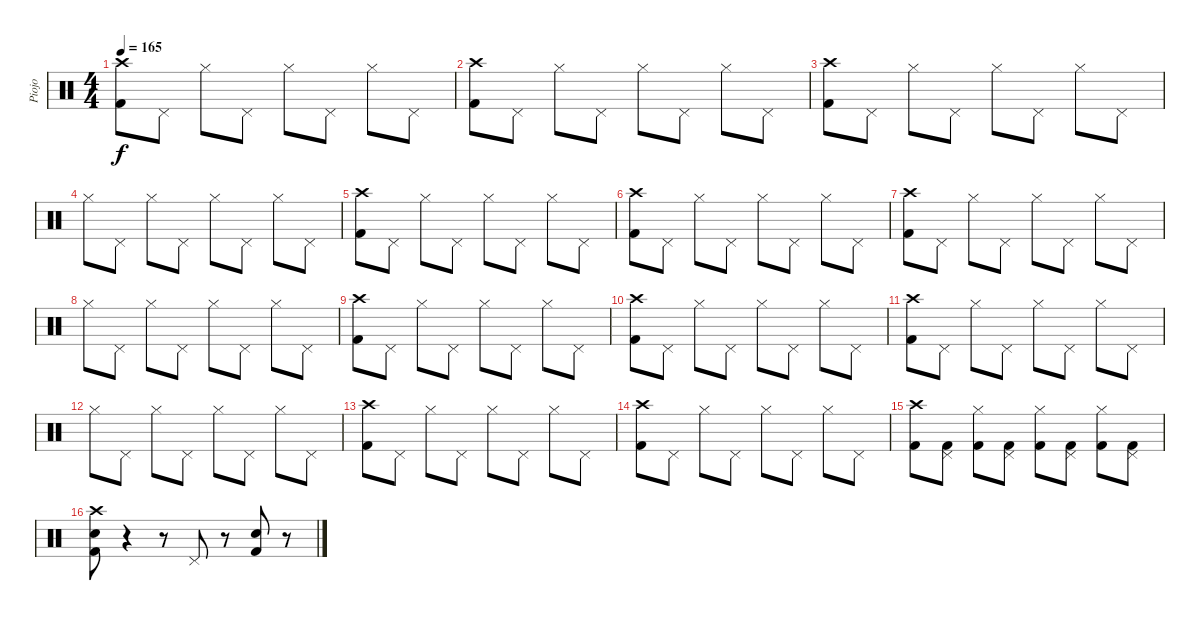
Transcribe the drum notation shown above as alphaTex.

\track ("Piojo" "Piojo") {instrument percussion}
\staff {score}
\articulation defaults
\ts (4 4)
\tempo 165
\clef neutral
\ks c
("Crash high (hit)" "Kick (hit) 2").8{dy f} "Pedal Hi-Hat (hit)".8 "Hi-Hat (closed)".8 "Pedal Hi-Hat (hit)".8 "Hi-Hat (closed)".8 "Pedal Hi-Hat (hit)".8 "Hi-Hat (closed)".8 "Pedal Hi-Hat (hit)".8 |
("Crash high (hit)" "Kick (hit) 2").8 "Pedal Hi-Hat (hit)".8 "Hi-Hat (closed)".8 "Pedal Hi-Hat (hit)".8 "Hi-Hat (closed)".8 "Pedal Hi-Hat (hit)".8 "Hi-Hat (closed)".8 "Pedal Hi-Hat (hit)".8 |
("Crash high (hit)" "Kick (hit) 2").8 "Pedal Hi-Hat (hit)".8 "Hi-Hat (closed)".8 "Pedal Hi-Hat (hit)".8 "Hi-Hat (closed)".8 "Pedal Hi-Hat (hit)".8 "Hi-Hat (closed)".8 "Pedal Hi-Hat (hit)".8 |
"Hi-Hat (closed)".8 "Pedal Hi-Hat (hit)".8 "Hi-Hat (closed)".8 "Pedal Hi-Hat (hit)".8 "Hi-Hat (closed)".8 "Pedal Hi-Hat (hit)".8 "Hi-Hat (closed)".8 "Pedal Hi-Hat (hit)".8 |
("Crash high (hit)" "Kick (hit) 2").8 "Pedal Hi-Hat (hit)".8 "Hi-Hat (closed)".8 "Pedal Hi-Hat (hit)".8 "Hi-Hat (closed)".8 "Pedal Hi-Hat (hit)".8 "Hi-Hat (closed)".8 "Pedal Hi-Hat (hit)".8 |
("Crash high (hit)" "Kick (hit) 2").8 "Pedal Hi-Hat (hit)".8 "Hi-Hat (closed)".8 "Pedal Hi-Hat (hit)".8 "Hi-Hat (closed)".8 "Pedal Hi-Hat (hit)".8 "Hi-Hat (closed)".8 "Pedal Hi-Hat (hit)".8 |
("Crash high (hit)" "Kick (hit) 2").8 "Pedal Hi-Hat (hit)".8 "Hi-Hat (closed)".8 "Pedal Hi-Hat (hit)".8 "Hi-Hat (closed)".8 "Pedal Hi-Hat (hit)".8 "Hi-Hat (closed)".8 "Pedal Hi-Hat (hit)".8 |
"Hi-Hat (closed)".8 "Pedal Hi-Hat (hit)".8 "Hi-Hat (closed)".8 "Pedal Hi-Hat (hit)".8 "Hi-Hat (closed)".8 "Pedal Hi-Hat (hit)".8 "Hi-Hat (closed)".8 "Pedal Hi-Hat (hit)".8 |
("Crash high (hit)" "Kick (hit) 2").8 "Pedal Hi-Hat (hit)".8 "Hi-Hat (closed)".8 "Pedal Hi-Hat (hit)".8 "Hi-Hat (closed)".8 "Pedal Hi-Hat (hit)".8 "Hi-Hat (closed)".8 "Pedal Hi-Hat (hit)".8 |
("Crash high (hit)" "Kick (hit) 2").8 "Pedal Hi-Hat (hit)".8 "Hi-Hat (closed)".8 "Pedal Hi-Hat (hit)".8 "Hi-Hat (closed)".8 "Pedal Hi-Hat (hit)".8 "Hi-Hat (closed)".8 "Pedal Hi-Hat (hit)".8 |
("Crash high (hit)" "Kick (hit) 2").8 "Pedal Hi-Hat (hit)".8 "Hi-Hat (closed)".8 "Pedal Hi-Hat (hit)".8 "Hi-Hat (closed)".8 "Pedal Hi-Hat (hit)".8 "Hi-Hat (closed)".8 "Pedal Hi-Hat (hit)".8 |
"Hi-Hat (closed)".8 "Pedal Hi-Hat (hit)".8 "Hi-Hat (closed)".8 "Pedal Hi-Hat (hit)".8 "Hi-Hat (closed)".8 "Pedal Hi-Hat (hit)".8 "Hi-Hat (closed)".8 "Pedal Hi-Hat (hit)".8 |
("Crash high (hit)" "Kick (hit) 2").8 "Pedal Hi-Hat (hit)".8 "Hi-Hat (closed)".8 "Pedal Hi-Hat (hit)".8 "Hi-Hat (closed)".8 "Pedal Hi-Hat (hit)".8 "Hi-Hat (closed)".8 "Pedal Hi-Hat (hit)".8 |
("Crash high (hit)" "Kick (hit) 2").8 "Pedal Hi-Hat (hit)".8 "Hi-Hat (closed)".8 "Pedal Hi-Hat (hit)".8 "Hi-Hat (closed)".8 "Pedal Hi-Hat (hit)".8 "Hi-Hat (closed)".8 "Pedal Hi-Hat (hit)".8 |
("Crash high (hit)" "Kick (hit) 2").8 ("Pedal Hi-Hat (hit)" "Kick (hit) 2").8 ("Hi-Hat (closed)" "Kick (hit) 2").8 ("Pedal Hi-Hat (hit)" "Kick (hit) 2").8 ("Hi-Hat (closed)" "Kick (hit) 2").8 ("Pedal Hi-Hat (hit)" "Kick (hit) 2").8 ("Hi-Hat (closed)" "Kick (hit) 2").8 ("Pedal Hi-Hat (hit)" "Kick (hit) 2").8 |
("Crash high (hit)" "Electric Snare (hit)" "Kick (hit) 2").8 r.4 r.8 "Pedal Hi-Hat (hit)".8 r.8 ("Electric Snare (hit)" "Kick (hit) 2").8 r.8
